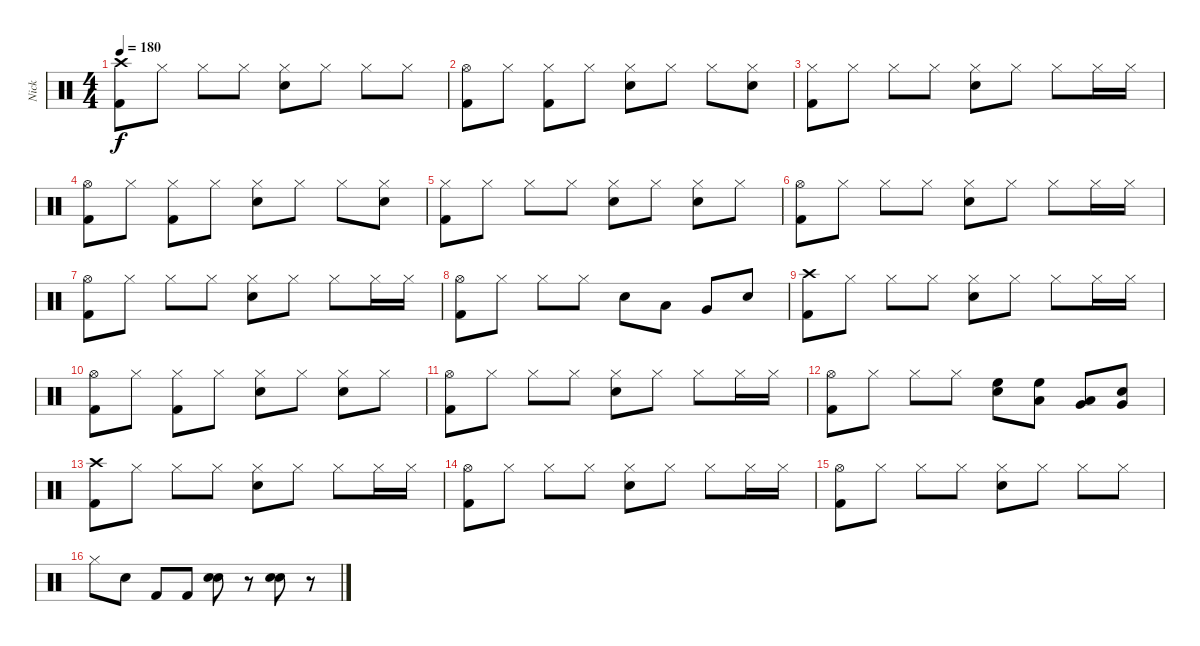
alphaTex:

\track ("Nick" "Nick") {instrument percussion}
\staff {score}
\articulation defaults
\ts (4 4)
\tempo 180
\clef neutral
\ks c
("Crash high (hit)" "Kick (hit) 2").8{dy f} "Hi-Hat (closed)".8 "Hi-Hat (closed)".8 "Hi-Hat (closed)".8 ("Hi-Hat (closed)" "Snare (hit) 2").8 "Hi-Hat (closed)".8 "Hi-Hat (closed)".8 "Hi-Hat (closed)".8 |
("Hi-Hat (open)" "Kick (hit) 2").8 "Hi-Hat (closed)".8 ("Hi-Hat (closed)" "Kick (hit) 2").8 "Hi-Hat (closed)".8 ("Hi-Hat (closed)" "Snare (hit) 2").8 "Hi-Hat (closed)".8 "Hi-Hat (closed)".8 ("Hi-Hat (closed)" "Snare (hit) 2").8 |
("Hi-Hat (closed)" "Kick (hit) 2").8 "Hi-Hat (closed)".8 "Hi-Hat (closed)".8 "Hi-Hat (closed)".8 ("Hi-Hat (closed)" "Snare (hit) 2").8 "Hi-Hat (closed)".8 "Hi-Hat (closed)".8 "Hi-Hat (closed)".16 "Hi-Hat (closed)".16 |
("Hi-Hat (open)" "Kick (hit) 2").8 "Hi-Hat (closed)".8 ("Hi-Hat (closed)" "Kick (hit) 2").8 "Hi-Hat (closed)".8 ("Hi-Hat (closed)" "Snare (hit) 2").8 "Hi-Hat (closed)".8 "Hi-Hat (closed)".8 ("Hi-Hat (closed)" "Snare (hit) 2").8 |
("Hi-Hat (closed)" "Kick (hit) 2").8 "Hi-Hat (closed)".8 "Hi-Hat (closed)".8 "Hi-Hat (closed)".8 ("Hi-Hat (closed)" "Snare (hit) 2").8 "Hi-Hat (closed)".8 ("Hi-Hat (closed)" "Snare (hit) 2").8 "Hi-Hat (closed)".8 |
("Hi-Hat (open)" "Kick (hit) 2").8 "Hi-Hat (closed)".8 "Hi-Hat (closed)".8 "Hi-Hat (closed)".8 ("Hi-Hat (closed)" "Snare (hit) 2").8 "Hi-Hat (closed)".8 "Hi-Hat (closed)".8 "Hi-Hat (closed)".16 "Hi-Hat (closed)".16 |
("Hi-Hat (open)" "Kick (hit) 2").8 "Hi-Hat (closed)".8 "Hi-Hat (closed)".8 "Hi-Hat (closed)".8 ("Hi-Hat (closed)" "Snare (hit) 2").8 "Hi-Hat (closed)".8 "Hi-Hat (closed)".8 "Hi-Hat (closed)".16 "Hi-Hat (closed)".16 |
("Hi-Hat (open)" "Kick (hit) 2").8 "Hi-Hat (closed)".8 "Hi-Hat (closed)".8 "Hi-Hat (closed)".8 "Snare (hit) 2".8 "Low Tom (hit)".8 "Very Low Tom (hit)".8 "Snare (hit) 2".8 |
("Crash high (hit)" "Kick (hit) 2").8 "Hi-Hat (closed)".8 "Hi-Hat (closed)".8 "Hi-Hat (closed)".8 ("Hi-Hat (closed)" "Snare (hit) 2").8 "Hi-Hat (closed)".8 "Hi-Hat (closed)".8 "Hi-Hat (closed)".16 "Hi-Hat (closed)".16 |
("Hi-Hat (open)" "Kick (hit) 2").8 "Hi-Hat (closed)".8 ("Hi-Hat (closed)" "Kick (hit) 2").8 "Hi-Hat (closed)".8 ("Hi-Hat (closed)" "Snare (hit) 2").8 "Hi-Hat (closed)".8 ("Hi-Hat (closed)" "Snare (hit) 2").8 "Hi-Hat (closed)".8 |
("Hi-Hat (open)" "Kick (hit) 2").8 "Hi-Hat (closed)".8 "Hi-Hat (closed)".8 "Hi-Hat (closed)".8 ("Hi-Hat (closed)" "Snare (hit) 2").8 "Hi-Hat (closed)".8 "Hi-Hat (closed)".8 "Hi-Hat (closed)".16 "Hi-Hat (closed)".16 |
("Hi-Hat (open)" "Kick (hit) 2").8 "Hi-Hat (closed)".8 "Hi-Hat (closed)".8 "Hi-Hat (closed)".8 ("High Floor Tom (hit)" "Snare (hit) 2").8 ("High Floor Tom (hit)" "Low Tom (hit)").8 ("Low Tom (hit)" "Very Low Tom (hit)").8 ("Very Low Tom (hit)" "Snare (hit) 2").8 |
("Crash high (hit)" "Kick (hit) 2").8 "Hi-Hat (closed)".8 "Hi-Hat (closed)".8 "Hi-Hat (closed)".8 ("Hi-Hat (closed)" "Snare (hit) 2").8 "Hi-Hat (closed)".8 "Hi-Hat (closed)".8 "Hi-Hat (closed)".16 "Hi-Hat (closed)".16 |
("Hi-Hat (open)" "Kick (hit) 2").8 "Hi-Hat (closed)".8 "Hi-Hat (closed)".8 "Hi-Hat (closed)".8 ("Hi-Hat (closed)" "Snare (hit) 2").8 "Hi-Hat (closed)".8 "Hi-Hat (closed)".8 "Hi-Hat (closed)".16 "Hi-Hat (closed)".16 |
("Hi-Hat (open)" "Kick (hit) 2").8 "Hi-Hat (closed)".8 "Hi-Hat (closed)".8 "Hi-Hat (closed)".8 ("Hi-Hat (closed)" "Snare (hit) 2").8 "Hi-Hat (closed)".8 "Hi-Hat (closed)".8 "Hi-Hat (closed)".8 |
"Hi-Hat (closed)".8 "Snare (hit) 2".8 "Kick (hit) 2".8 "Kick (hit) 2".8 ("Snare (hit) 2" "Snare (hit) 2").8 r.8 ("Snare (hit) 2" "Snare (hit) 2").8 r.8
